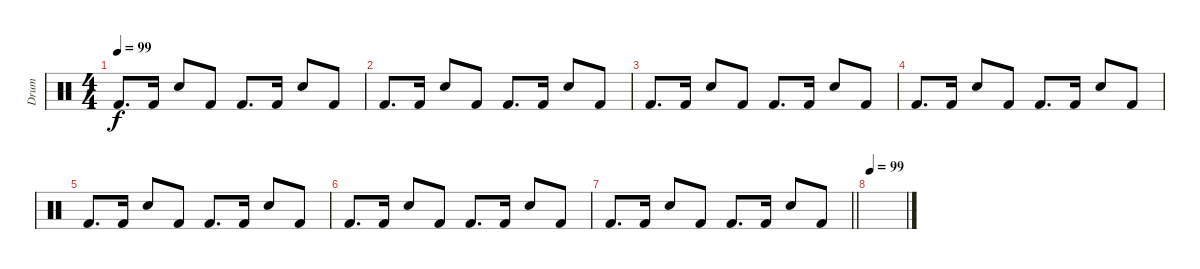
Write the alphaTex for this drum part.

\track ("Drum" "Drum") {instrument percussion}
\staff {score}
\articulation defaults
\ts (4 4)
\tempo 99
\clef neutral
\ks c "Kick (hit) 2".8{d dy f} "Kick (hit) 2".16 "Electric Snare (hit)".8 "Kick (hit) 2".8 "Kick (hit) 2".8{d} "Kick (hit) 2".16 "Electric Snare (hit)".8 "Kick (hit) 2".8
|
"Kick (hit) 2".8{d} "Kick (hit) 2".16 "Electric Snare (hit)".8 "Kick (hit) 2".8 "Kick (hit) 2".8{d} "Kick (hit) 2".16 "Electric Snare (hit)".8 "Kick (hit) 2".8 |
"Kick (hit) 2".8{d} "Kick (hit) 2".16 "Electric Snare (hit)".8 "Kick (hit) 2".8 "Kick (hit) 2".8{d} "Kick (hit) 2".16 "Electric Snare (hit)".8 "Kick (hit) 2".8 |
"Kick (hit) 2".8{d} "Kick (hit) 2".16 "Electric Snare (hit)".8 "Kick (hit) 2".8 "Kick (hit) 2".8{d} "Kick (hit) 2".16 "Electric Snare (hit)".8 "Kick (hit) 2".8 |
"Kick (hit) 2".8{d} "Kick (hit) 2".16 "Electric Snare (hit)".8 "Kick (hit) 2".8 "Kick (hit) 2".8{d} "Kick (hit) 2".16 "Electric Snare (hit)".8 "Kick (hit) 2".8 |
"Kick (hit) 2".8{d} "Kick (hit) 2".16 "Electric Snare (hit)".8 "Kick (hit) 2".8 "Kick (hit) 2".8{d} "Kick (hit) 2".16 "Electric Snare (hit)".8 "Kick (hit) 2".8 |
\barLineRight lightlight "Kick (hit) 2".8{d} "Kick (hit) 2".16 "Electric Snare (hit)".8 "Kick (hit) 2".8 "Kick (hit) 2".8{d} "Kick (hit) 2".16 "Electric Snare (hit)".8 "Kick (hit) 2".8
|
\tempo 99
